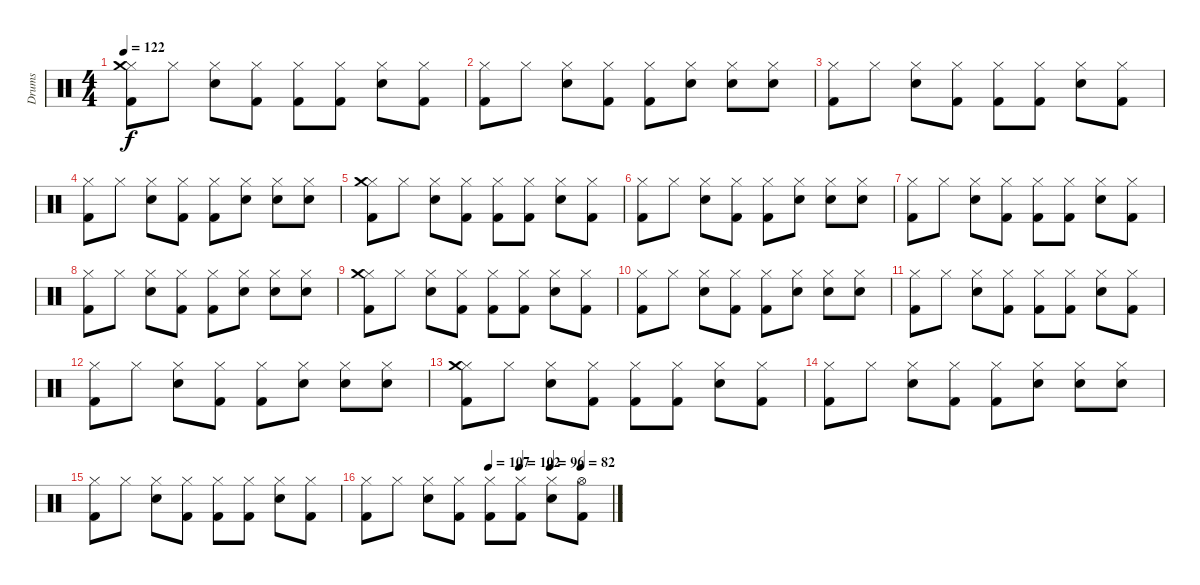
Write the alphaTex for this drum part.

\track ("Drums" "Drums") {instrument percussion}
\staff {score}
\articulation defaults
\ts (4 4)
\tempo 122
\clef neutral
\ks c
("Hi-Hat (closed)" "Crash medium (hit)" "Kick (hit) 2").8{dy f} "Hi-Hat (closed)".8 ("Hi-Hat (closed)" "Snare (hit) 2").8 ("Hi-Hat (closed)" "Kick (hit) 2").8 ("Hi-Hat (closed)" "Kick (hit) 2").8 ("Hi-Hat (closed)" "Kick (hit) 2").8 ("Hi-Hat (closed)" "Snare (hit) 2").8 ("Hi-Hat (closed)" "Kick (hit) 2").8 |
("Kick (hit) 2" "Hi-Hat (closed)").8 "Hi-Hat (closed)".8 ("Snare (hit) 2" "Hi-Hat (closed)").8 ("Kick (hit) 2" "Hi-Hat (closed)").8 ("Kick (hit) 2" "Hi-Hat (closed)").8 ("Snare (hit) 2" "Hi-Hat (closed)").8 ("Snare (hit) 2" "Hi-Hat (closed)").8 ("Snare (hit) 2" "Hi-Hat (closed)").8 |
("Kick (hit) 2" "Hi-Hat (closed)").8 "Hi-Hat (closed)".8 ("Hi-Hat (closed)" "Snare (hit) 2").8 ("Hi-Hat (closed)" "Kick (hit) 2").8 ("Hi-Hat (closed)" "Kick (hit) 2").8 ("Hi-Hat (closed)" "Kick (hit) 2").8 ("Hi-Hat (closed)" "Snare (hit) 2").8 ("Hi-Hat (closed)" "Kick (hit) 2").8 |
("Kick (hit) 2" "Hi-Hat (closed)").8 "Hi-Hat (closed)".8 ("Snare (hit) 2" "Hi-Hat (closed)").8 ("Kick (hit) 2" "Hi-Hat (closed)").8 ("Kick (hit) 2" "Hi-Hat (closed)").8 ("Snare (hit) 2" "Hi-Hat (closed)").8 ("Snare (hit) 2" "Hi-Hat (closed)").8 ("Snare (hit) 2" "Hi-Hat (closed)").8 |
("Hi-Hat (closed)" "Crash medium (hit)" "Kick (hit) 2").8 "Hi-Hat (closed)".8 ("Hi-Hat (closed)" "Snare (hit) 2").8 ("Hi-Hat (closed)" "Kick (hit) 2").8 ("Hi-Hat (closed)" "Kick (hit) 2").8 ("Hi-Hat (closed)" "Kick (hit) 2").8 ("Hi-Hat (closed)" "Snare (hit) 2").8 ("Hi-Hat (closed)" "Kick (hit) 2").8 |
("Kick (hit) 2" "Hi-Hat (closed)").8 "Hi-Hat (closed)".8 ("Snare (hit) 2" "Hi-Hat (closed)").8 ("Kick (hit) 2" "Hi-Hat (closed)").8 ("Kick (hit) 2" "Hi-Hat (closed)").8 ("Snare (hit) 2" "Hi-Hat (closed)").8 ("Snare (hit) 2" "Hi-Hat (closed)").8 ("Snare (hit) 2" "Hi-Hat (closed)").8 |
("Kick (hit) 2" "Hi-Hat (closed)").8 "Hi-Hat (closed)".8 ("Hi-Hat (closed)" "Snare (hit) 2").8 ("Hi-Hat (closed)" "Kick (hit) 2").8 ("Hi-Hat (closed)" "Kick (hit) 2").8 ("Hi-Hat (closed)" "Kick (hit) 2").8 ("Hi-Hat (closed)" "Snare (hit) 2").8 ("Hi-Hat (closed)" "Kick (hit) 2").8 |
("Kick (hit) 2" "Hi-Hat (closed)").8 "Hi-Hat (closed)".8 ("Snare (hit) 2" "Hi-Hat (closed)").8 ("Kick (hit) 2" "Hi-Hat (closed)").8 ("Kick (hit) 2" "Hi-Hat (closed)").8 ("Snare (hit) 2" "Hi-Hat (closed)").8 ("Snare (hit) 2" "Hi-Hat (closed)").8 ("Snare (hit) 2" "Hi-Hat (closed)").8 |
("Hi-Hat (closed)" "Crash medium (hit)" "Kick (hit) 2").8 "Hi-Hat (closed)".8 ("Hi-Hat (closed)" "Snare (hit) 2").8 ("Hi-Hat (closed)" "Kick (hit) 2").8 ("Hi-Hat (closed)" "Kick (hit) 2").8 ("Hi-Hat (closed)" "Kick (hit) 2").8 ("Hi-Hat (closed)" "Snare (hit) 2").8 ("Hi-Hat (closed)" "Kick (hit) 2").8 |
("Kick (hit) 2" "Hi-Hat (closed)").8 "Hi-Hat (closed)".8 ("Snare (hit) 2" "Hi-Hat (closed)").8 ("Kick (hit) 2" "Hi-Hat (closed)").8 ("Kick (hit) 2" "Hi-Hat (closed)").8 ("Snare (hit) 2" "Hi-Hat (closed)").8 ("Snare (hit) 2" "Hi-Hat (closed)").8 ("Snare (hit) 2" "Hi-Hat (closed)").8 |
("Kick (hit) 2" "Hi-Hat (closed)").8 "Hi-Hat (closed)".8 ("Hi-Hat (closed)" "Snare (hit) 2").8 ("Hi-Hat (closed)" "Kick (hit) 2").8 ("Hi-Hat (closed)" "Kick (hit) 2").8 ("Hi-Hat (closed)" "Kick (hit) 2").8 ("Hi-Hat (closed)" "Snare (hit) 2").8 ("Hi-Hat (closed)" "Kick (hit) 2").8 |
("Kick (hit) 2" "Hi-Hat (closed)").8 "Hi-Hat (closed)".8 ("Snare (hit) 2" "Hi-Hat (closed)").8 ("Kick (hit) 2" "Hi-Hat (closed)").8 ("Kick (hit) 2" "Hi-Hat (closed)").8 ("Snare (hit) 2" "Hi-Hat (closed)").8 ("Snare (hit) 2" "Hi-Hat (closed)").8 ("Snare (hit) 2" "Hi-Hat (closed)").8 |
("Hi-Hat (closed)" "Crash medium (hit)" "Kick (hit) 2").8 "Hi-Hat (closed)".8 ("Hi-Hat (closed)" "Snare (hit) 2").8 ("Hi-Hat (closed)" "Kick (hit) 2").8 ("Hi-Hat (closed)" "Kick (hit) 2").8 ("Hi-Hat (closed)" "Kick (hit) 2").8 ("Hi-Hat (closed)" "Snare (hit) 2").8 ("Hi-Hat (closed)" "Kick (hit) 2").8 |
("Kick (hit) 2" "Hi-Hat (closed)").8 "Hi-Hat (closed)".8 ("Snare (hit) 2" "Hi-Hat (closed)").8 ("Kick (hit) 2" "Hi-Hat (closed)").8 ("Kick (hit) 2" "Hi-Hat (closed)").8 ("Snare (hit) 2" "Hi-Hat (closed)").8 ("Snare (hit) 2" "Hi-Hat (closed)").8 ("Snare (hit) 2" "Hi-Hat (closed)").8 |
("Kick (hit) 2" "Hi-Hat (closed)").8 "Hi-Hat (closed)".8 ("Hi-Hat (closed)" "Snare (hit) 2").8 ("Hi-Hat (closed)" "Kick (hit) 2").8 ("Hi-Hat (closed)" "Kick (hit) 2").8 ("Hi-Hat (closed)" "Kick (hit) 2").8 ("Hi-Hat (closed)" "Snare (hit) 2").8 ("Hi-Hat (closed)" "Kick (hit) 2").8 |
\tempo (107 0.5)
\tempo (102 0.625)
\tempo (96 0.75)
\tempo (82 0.875)
("Kick (hit) 2" "Hi-Hat (closed)").8 "Hi-Hat (closed)".8 ("Snare (hit) 2" "Hi-Hat (closed)").8 ("Kick (hit) 2" "Hi-Hat (closed)").8 ("Kick (hit) 2" "Hi-Hat (closed)").8 ("Kick (hit) 2" "Hi-Hat (closed)").8 ("Snare (hit) 2" "Hi-Hat (closed)").8 ("Kick (hit) 2" "Hi-Hat (open)").8
